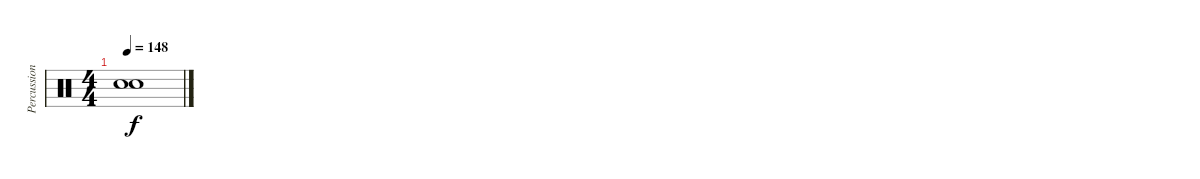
\track ("Percussions" "Percussion") {instrument percussion}
\staff {score}
\articulation defaults
\ts (4 4)
\tempo 148
\clef neutral
\ks c
("Snare (hit)"{t} "Snare (hit)"{t}).1{dy f}
